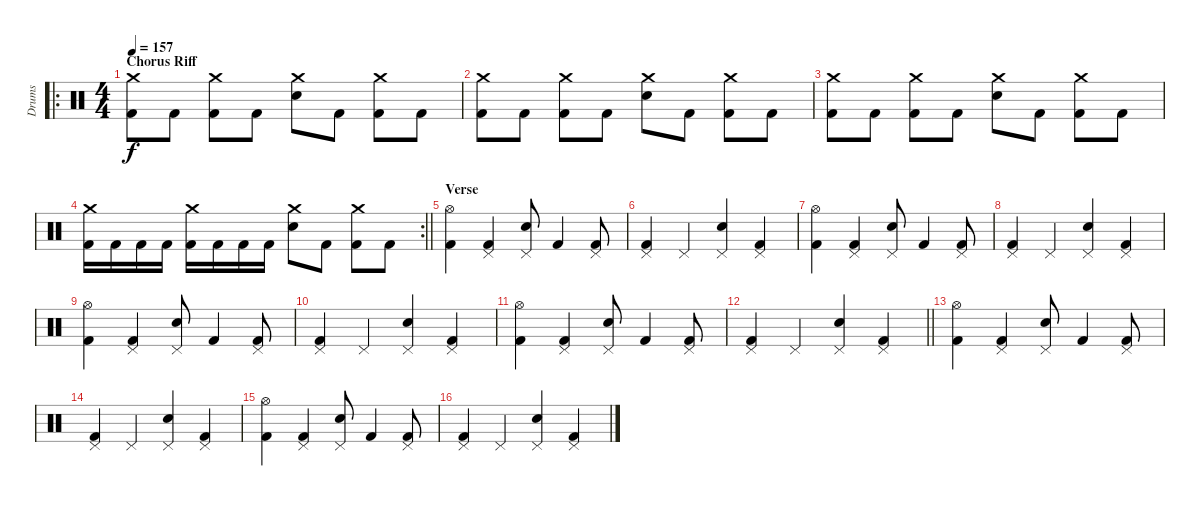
\track ("Drums" "Drums") {instrument percussion}
\staff {score}
\articulation defaults
\ro
\ts (4 4)
\section ("" "Chorus Riff")
\tempo 157
\clef neutral
\ks c
("Crash medium (hit)" "Kick (hit) 2").8{dy f} "Kick (hit) 2".8 ("Crash medium (hit)" "Kick (hit) 2").8 "Kick (hit) 2".8 ("Crash medium (hit)" "Electric Snare (hit)").8 "Kick (hit) 2".8 ("Crash medium (hit)" "Kick (hit) 2").8 "Kick (hit) 2".8 |
("Crash medium (hit)" "Kick (hit) 2").8 "Kick (hit) 2".8 ("Crash medium (hit)" "Kick (hit) 2").8 "Kick (hit) 2".8 ("Crash medium (hit)" "Electric Snare (hit)").8 "Kick (hit) 2".8 ("Crash medium (hit)" "Kick (hit) 2").8 "Kick (hit) 2".8 |
("Crash medium (hit)" "Kick (hit) 2").8 "Kick (hit) 2".8 ("Crash medium (hit)" "Kick (hit) 2").8 "Kick (hit) 2".8 ("Crash medium (hit)" "Electric Snare (hit)").8 "Kick (hit) 2".8 ("Crash medium (hit)" "Kick (hit) 2").8 "Kick (hit) 2".8 |
\rc 2
\barLineRight lightlight
("Crash medium (hit)" "Kick (hit) 2").16 "Kick (hit) 2".16 "Kick (hit) 2".16 "Kick (hit) 2".16 ("Crash medium (hit)" "Kick (hit) 2").16 "Kick (hit) 2".16 "Kick (hit) 2".16 "Kick (hit) 2".16 ("Crash medium (hit)" "Electric Snare (hit)").8 "Kick (hit) 2".8 ("Crash medium (hit)" "Kick (hit) 2").8 "Kick (hit) 2".8 |
\section ("" "Verse")
("Hi-Hat (open)" "Kick (hit) 2").4 ("Pedal Hi-Hat (hit)" "Kick (hit) 2").4 ("Pedal Hi-Hat (hit)" "Electric Snare (hit)").8 "Kick (hit) 2".4 ("Pedal Hi-Hat (hit)" "Kick (hit) 2").8 |
("Pedal Hi-Hat (hit)" "Kick (hit) 2").4 "Pedal Hi-Hat (hit)".4 ("Pedal Hi-Hat (hit)" "Electric Snare (hit)").4 ("Pedal Hi-Hat (hit)" "Kick (hit) 2").4 |
("Hi-Hat (open)" "Kick (hit) 2").4 ("Pedal Hi-Hat (hit)" "Kick (hit) 2").4 ("Pedal Hi-Hat (hit)" "Electric Snare (hit)").8 "Kick (hit) 2".4 ("Pedal Hi-Hat (hit)" "Kick (hit) 2").8 |
("Pedal Hi-Hat (hit)" "Kick (hit) 2").4 "Pedal Hi-Hat (hit)".4 ("Pedal Hi-Hat (hit)" "Electric Snare (hit)").4 ("Pedal Hi-Hat (hit)" "Kick (hit) 2").4 |
("Hi-Hat (open)" "Kick (hit) 2").4 ("Pedal Hi-Hat (hit)" "Kick (hit) 2").4 ("Pedal Hi-Hat (hit)" "Electric Snare (hit)").8 "Kick (hit) 2".4 ("Pedal Hi-Hat (hit)" "Kick (hit) 2").8 |
("Pedal Hi-Hat (hit)" "Kick (hit) 2").4 "Pedal Hi-Hat (hit)".4 ("Pedal Hi-Hat (hit)" "Electric Snare (hit)").4 ("Pedal Hi-Hat (hit)" "Kick (hit) 2").4 |
("Hi-Hat (open)" "Kick (hit) 2").4 ("Pedal Hi-Hat (hit)" "Kick (hit) 2").4 ("Pedal Hi-Hat (hit)" "Electric Snare (hit)").8 "Kick (hit) 2".4 ("Pedal Hi-Hat (hit)" "Kick (hit) 2").8 |
\barLineRight lightlight
("Pedal Hi-Hat (hit)" "Kick (hit) 2").4 "Pedal Hi-Hat (hit)".4 ("Pedal Hi-Hat (hit)" "Electric Snare (hit)").4 ("Pedal Hi-Hat (hit)" "Kick (hit) 2").4 |
("Hi-Hat (open)" "Kick (hit) 2").4 ("Pedal Hi-Hat (hit)" "Kick (hit) 2").4 ("Pedal Hi-Hat (hit)" "Electric Snare (hit)").8 "Kick (hit) 2".4 ("Pedal Hi-Hat (hit)" "Kick (hit) 2").8 |
("Pedal Hi-Hat (hit)" "Kick (hit) 2").4 "Pedal Hi-Hat (hit)".4 ("Pedal Hi-Hat (hit)" "Electric Snare (hit)").4 ("Pedal Hi-Hat (hit)" "Kick (hit) 2").4 |
("Hi-Hat (open)" "Kick (hit) 2").4 ("Pedal Hi-Hat (hit)" "Kick (hit) 2").4 ("Pedal Hi-Hat (hit)" "Electric Snare (hit)").8 "Kick (hit) 2".4 ("Pedal Hi-Hat (hit)" "Kick (hit) 2").8 |
("Pedal Hi-Hat (hit)" "Kick (hit) 2").4 "Pedal Hi-Hat (hit)".4 ("Pedal Hi-Hat (hit)" "Electric Snare (hit)").4 ("Pedal Hi-Hat (hit)" "Kick (hit) 2").4
